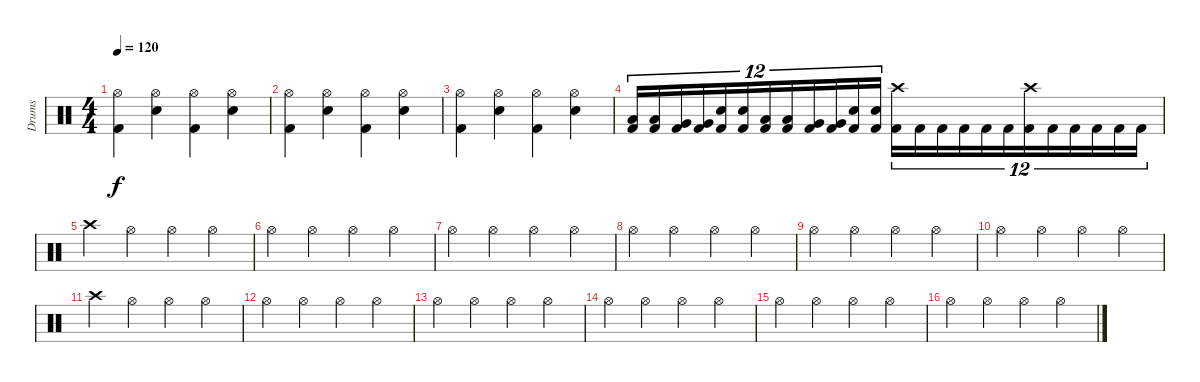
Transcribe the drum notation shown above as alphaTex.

\track ("Drums" "Drums") {instrument percussion}
\staff {score}
\articulation defaults
\ts (4 4)
\tempo 120
\clef neutral
\ks c
("Hi-Hat (open)" "Kick (hit) 2").4{dy f} ("Hi-Hat (open)" "Electric Snare (hit)").4 ("Hi-Hat (open)" "Kick (hit) 2").4 ("Hi-Hat (open)" "Electric Snare (hit)").4 |
("Hi-Hat (open)" "Kick (hit) 2").4 ("Hi-Hat (open)" "Electric Snare (hit)").4 ("Hi-Hat (open)" "Kick (hit) 2").4 ("Hi-Hat (open)" "Electric Snare (hit)").4 |
("Hi-Hat (open)" "Kick (hit) 2").4 ("Hi-Hat (open)" "Electric Snare (hit)").4 ("Hi-Hat (open)" "Kick (hit) 2").4 ("Hi-Hat (open)" "Electric Snare (hit)").4 |
("Low Floor Tom (hit)" "Kick (hit) 2").16{tu (12 8)} ("Low Floor Tom (hit)" "Kick (hit) 2").16{tu (12 8)} ("Very Low Tom (hit)" "Kick (hit) 2").16{tu (12 8)} ("Very Low Tom (hit)" "Kick (hit) 2").16{tu (12 8)} ("Electric Snare (hit)" "Kick (hit) 2").16{tu (12 8)} ("Electric Snare (hit)" "Kick (hit) 2").16{tu (12 8)} ("Low Floor Tom (hit)" "Kick (hit) 2").16{tu (12 8)} ("Low Floor Tom (hit)" "Kick (hit) 2").16{tu (12 8)} ("Very Low Tom (hit)" "Kick (hit) 2").16{tu (12 8)} ("Very Low Tom (hit)" "Kick (hit) 2").16{tu (12 8)} ("Electric Snare (hit)" "Kick (hit) 2").16{tu (12 8)} ("Electric Snare (hit)" "Kick (hit) 2").16{tu (12 8)} ("Crash high (hit)" "Kick (hit) 2").16{tu (12 8)} "Kick (hit) 2".16{tu (12 8)} "Kick (hit) 2".16{tu (12 8)} "Kick (hit) 2".16{tu (12 8)} "Kick (hit) 2".16{tu (12 8)} "Kick (hit) 2".16{tu (12 8)} ("Crash high (hit)" "Kick (hit) 2").16{tu (12 8)} "Kick (hit) 2".16{tu (12 8)} "Kick (hit) 2".16{tu (12 8)} "Kick (hit) 2".16{tu (12 8)} "Kick (hit) 2".16{tu (12 8)} "Kick (hit) 2".16{tu (12 8)} |
"Crash high (hit)".4 "Hi-Hat (open)".4 "Hi-Hat (open)".4 "Hi-Hat (open)".4 |
"Hi-Hat (open)".4 "Hi-Hat (open)".4 "Hi-Hat (open)".4 "Hi-Hat (open)".4 |
"Hi-Hat (open)".4 "Hi-Hat (open)".4 "Hi-Hat (open)".4 "Hi-Hat (open)".4 |
"Hi-Hat (open)".4 "Hi-Hat (open)".4 "Hi-Hat (open)".4 "Hi-Hat (open)".4 |
"Hi-Hat (open)".4 "Hi-Hat (open)".4 "Hi-Hat (open)".4 "Hi-Hat (open)".4 |
"Hi-Hat (open)".4 "Hi-Hat (open)".4 "Hi-Hat (open)".4 "Hi-Hat (open)".4 |
"Crash high (hit)".4 "Hi-Hat (open)".4 "Hi-Hat (open)".4 "Hi-Hat (open)".4 |
"Hi-Hat (open)".4 "Hi-Hat (open)".4 "Hi-Hat (open)".4 "Hi-Hat (open)".4 |
"Hi-Hat (open)".4 "Hi-Hat (open)".4 "Hi-Hat (open)".4 "Hi-Hat (open)".4 |
"Hi-Hat (open)".4 "Hi-Hat (open)".4 "Hi-Hat (open)".4 "Hi-Hat (open)".4 |
"Hi-Hat (open)".4 "Hi-Hat (open)".4 "Hi-Hat (open)".4 "Hi-Hat (open)".4 |
"Hi-Hat (open)".4 "Hi-Hat (open)".4 "Hi-Hat (open)".4 "Hi-Hat (open)".4
